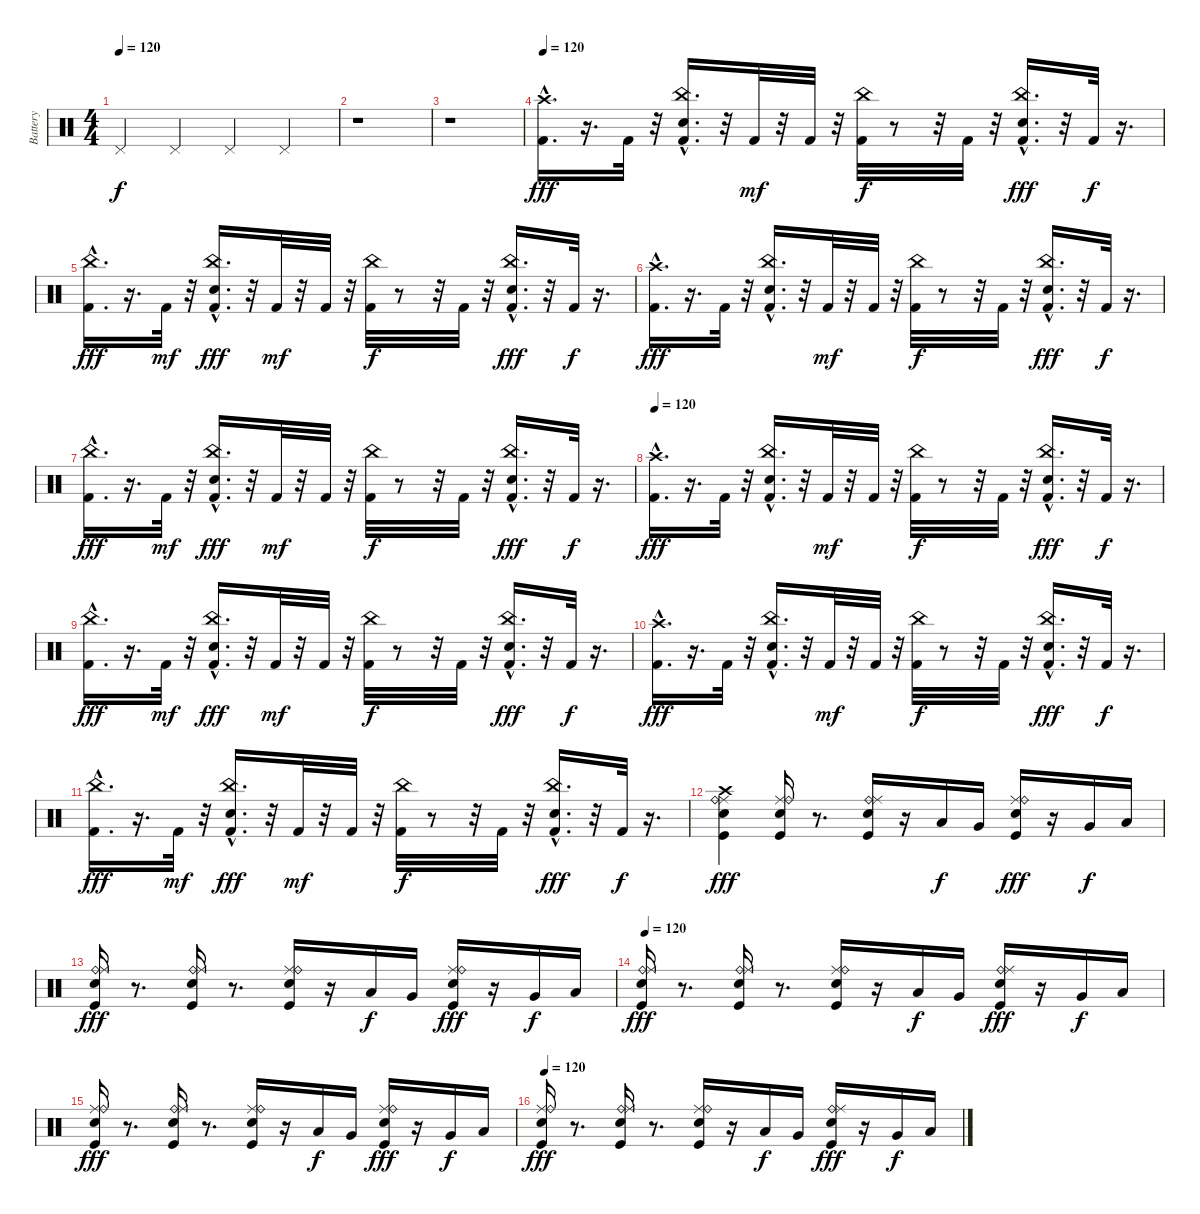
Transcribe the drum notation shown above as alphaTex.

\track ("Battery" "Battery") {instrument percussion}
\staff {score}
\articulation defaults
\ts (4 4)
\tempo 120
\clef neutral
\ks c "Pedal Hi-Hat (hit)".4{dy f} "Pedal Hi-Hat (hit)".4 "Pedal Hi-Hat (hit)".4 "Pedal Hi-Hat (hit)".4
|
r.1 |
r.1 |
\tempo 120
("Crash high (hit)" "Kick (hit) 2"{hac}).16{d dy fff} r.16{d} "Kick (hit) 2".32 r.32 ("China (hit)" "Electric Snare (hit)"{hac} "Kick (hit) 2").16{d} r.32 "Kick (hit) 2".32{dy mf} r.32 "Kick (hit) 2".32 r.32 ("China (hit)" "Kick (hit) 2").32{dy f} r.8 r.32 "Kick (hit) 2".32 r.32 ("Electric Snare (hit)"{hac} "Kick (hit) 2" "China (hit)").16{d dy fff} r.32 "Kick (hit) 2".32{dy f} r.16{d} |
("Kick (hit) 2"{hac} "China (hit)").16{d dy fff} r.16{d} "Kick (hit) 2".32{dy mf} r.32 ("China (hit)" "Kick (hit) 2" "Electric Snare (hit)"{hac}).16{d dy fff} r.32 "Kick (hit) 2".32{dy mf} r.32 "Kick (hit) 2".32 r.32 ("China (hit)" "Kick (hit) 2").32{dy f} r.8 r.32 "Kick (hit) 2".32 r.32 ("Kick (hit) 2" "China (hit)" "Electric Snare (hit)"{hac}).16{d dy fff} r.32 "Kick (hit) 2".32{dy f} r.16{d} |
("Kick (hit) 2"{hac} "Crash high (hit)").16{d dy fff} r.16{d} "Kick (hit) 2".32 r.32 ("Kick (hit) 2" "China (hit)" "Electric Snare (hit)"{hac}).16{d} r.32 "Kick (hit) 2".32{dy mf} r.32 "Kick (hit) 2".32 r.32 ("Kick (hit) 2" "China (hit)").32{dy f} r.8 r.32 "Kick (hit) 2".32 r.32 ("China (hit)" "Electric Snare (hit)"{hac} "Kick (hit) 2").16{d dy fff} r.32 "Kick (hit) 2".32{dy f} r.16{d} |
("Kick (hit) 2"{hac} "China (hit)").16{d dy fff} r.16{d} "Kick (hit) 2".32{dy mf} r.32 ("Electric Snare (hit)"{hac} "China (hit)" "Kick (hit) 2").16{d dy fff} r.32 "Kick (hit) 2".32{dy mf} r.32 "Kick (hit) 2".32 r.32 ("China (hit)" "Kick (hit) 2").32{dy f} r.8 r.32 "Kick (hit) 2".32 r.32 ("China (hit)" "Kick (hit) 2" "Electric Snare (hit)"{hac}).16{d dy fff} r.32 "Kick (hit) 2".32{dy f} r.16{d} |
\tempo 120
("Crash high (hit)" "Kick (hit) 2"{hac}).16{d dy fff} r.16{d} "Kick (hit) 2".32 r.32 ("China (hit)" "Electric Snare (hit)"{hac} "Kick (hit) 2").16{d} r.32 "Kick (hit) 2".32{dy mf} r.32 "Kick (hit) 2".32 r.32 ("China (hit)" "Kick (hit) 2").32{dy f} r.8 r.32 "Kick (hit) 2".32 r.32 ("Electric Snare (hit)"{hac} "Kick (hit) 2" "China (hit)").16{d dy fff} r.32 "Kick (hit) 2".32{dy f} r.16{d} |
("Kick (hit) 2"{hac} "China (hit)").16{d dy fff} r.16{d} "Kick (hit) 2".32{dy mf} r.32 ("China (hit)" "Kick (hit) 2" "Electric Snare (hit)"{hac}).16{d dy fff} r.32 "Kick (hit) 2".32{dy mf} r.32 "Kick (hit) 2".32 r.32 ("China (hit)" "Kick (hit) 2").32{dy f} r.8 r.32 "Kick (hit) 2".32 r.32 ("Kick (hit) 2" "China (hit)" "Electric Snare (hit)"{hac}).16{d dy fff} r.32 "Kick (hit) 2".32{dy f} r.16{d} |
("Kick (hit) 2"{hac} "Crash high (hit)").16{d dy fff} r.16{d} "Kick (hit) 2".32 r.32 ("Kick (hit) 2" "China (hit)" "Electric Snare (hit)"{hac}).16{d} r.32 "Kick (hit) 2".32{dy mf} r.32 "Kick (hit) 2".32 r.32 ("Kick (hit) 2" "China (hit)").32{dy f} r.8 r.32 "Kick (hit) 2".32 r.32 ("China (hit)" "Electric Snare (hit)"{hac} "Kick (hit) 2").16{d dy fff} r.32 "Kick (hit) 2".32{dy f} r.16{d} |
("Kick (hit) 2"{hac} "China (hit)").16{d dy fff} r.16{d} "Kick (hit) 2".32{dy mf} r.32 ("Electric Snare (hit)"{hac} "China (hit)" "Kick (hit) 2").16{d dy fff} r.32 "Kick (hit) 2".32{dy mf} r.32 "Kick (hit) 2".32 r.32 ("China (hit)" "Kick (hit) 2").32{dy f} r.8 r.32 "Kick (hit) 2".32 r.32 ("China (hit)" "Kick (hit) 2" "Electric Snare (hit)"{hac}).16{d dy fff} r.32 "Kick (hit) 2".32{dy f} r.16{d} |
("Crash high (hit)" "Ride (middle)" "Ride (bell)" "Electric Snare (hit)" "Kick (hit)").4{dy fff} ("Electric Snare (hit)" "Ride (middle)" "Ride (bell)" "Kick (hit)").16 r.8{d} ("Ride (bell)" "Electric Snare (hit)" "Ride (middle)" "Kick (hit)").16 r.16 "Low Tom (hit)".16{dy f} "Very Low Tom (hit)".16 ("Electric Snare (hit)" "Ride (middle)" "Ride (bell)" "Kick (hit)").16{dy fff} r.16 "Very Low Tom (hit)".16{dy f} "Low Floor Tom (hit)".16 |
("Ride (bell)" "Ride (middle)" "Electric Snare (hit)" "Kick (hit)").16{dy fff} r.8{d} ("Ride (bell)" "Electric Snare (hit)" "Ride (middle)" "Kick (hit)").16 r.8{d} ("Electric Snare (hit)" "Ride (middle)" "Ride (bell)" "Kick (hit)").16 r.16 "Low Tom (hit)".16{dy f} "Very Low Tom (hit)".16 ("Ride (middle)" "Ride (bell)" "Electric Snare (hit)" "Kick (hit)").16{dy fff} r.16 "Very Low Tom (hit)".16{dy f} "Low Floor Tom (hit)".16 |
\tempo 120
("Ride (bell)" "Ride (middle)" "Electric Snare (hit)" "Kick (hit)").16{dy fff} r.8{d} ("Ride (bell)" "Ride (middle)" "Electric Snare (hit)" "Kick (hit)").16 r.8{d} ("Ride (middle)" "Electric Snare (hit)" "Ride (bell)" "Kick (hit)").16 r.16 "Low Tom (hit)".16{dy f} "Very Low Tom (hit)".16 ("Electric Snare (hit)" "Ride (bell)" "Ride (middle)" "Kick (hit)").16{dy fff} r.16 "Very Low Tom (hit)".16{dy f} "Low Floor Tom (hit)".16 |
("Ride (middle)" "Ride (bell)" "Electric Snare (hit)" "Kick (hit)").16{dy fff} r.8{d} ("Ride (bell)" "Electric Snare (hit)" "Ride (middle)" "Kick (hit)").16 r.8{d} ("Ride (middle)" "Electric Snare (hit)" "Ride (bell)" "Kick (hit)").16 r.16 "Low Tom (hit)".16{dy f} "Very Low Tom (hit)".16 ("Ride (middle)" "Electric Snare (hit)" "Ride (bell)" "Kick (hit)").16{dy fff} r.16 "Very Low Tom (hit)".16{dy f} "Low Floor Tom (hit)".16 |
\tempo 120
("Ride (middle)" "Electric Snare (hit)" "Ride (bell)" "Kick (hit)").16{dy fff} r.8{d} ("Ride (bell)" "Ride (middle)" "Electric Snare (hit)" "Kick (hit)").16 r.8{d} ("Ride (middle)" "Electric Snare (hit)" "Ride (bell)" "Kick (hit)").16 r.16 "Low Tom (hit)".16{dy f} "Very Low Tom (hit)".16 ("Ride (bell)" "Electric Snare (hit)" "Ride (middle)" "Kick (hit)").16{dy fff} r.16 "Very Low Tom (hit)".16{dy f} "Low Floor Tom (hit)".16
